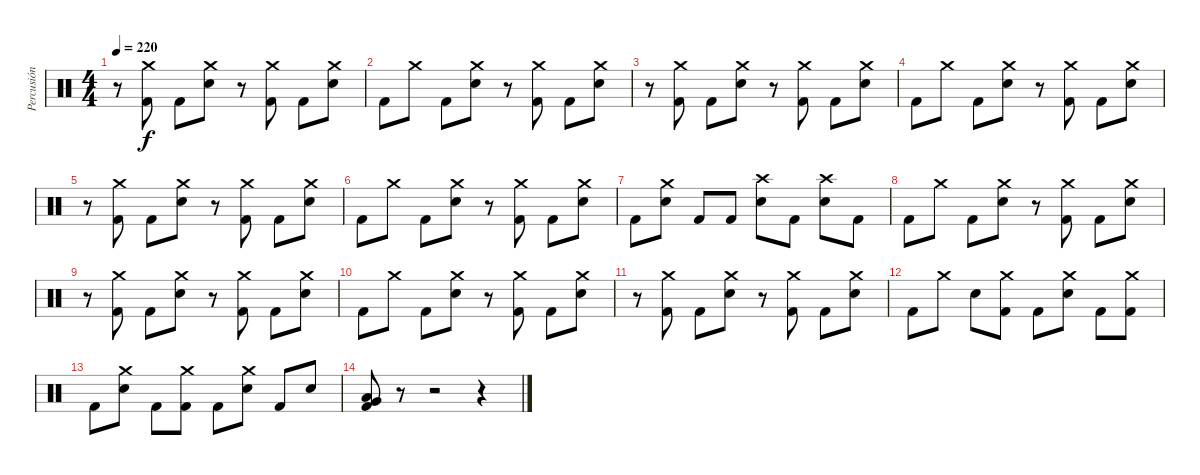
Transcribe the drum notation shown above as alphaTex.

\track ("Percusión" "Percusión") {instrument percussion}
\staff {score}
\articulation defaults
\ts (4 4)
\tempo 220
\clef neutral
\ks c
r.8{dy f} ("Crash medium (hit)" "Kick (hit) 2").8 "Kick (hit) 2".8 ("Crash medium (hit)" "Electric Snare (hit)").8 r.8 ("Crash medium (hit)" "Kick (hit) 2").8 "Kick (hit) 2".8 ("Crash medium (hit)" "Electric Snare (hit)").8 |
"Kick (hit) 2".8 "Crash medium (hit)".8 "Kick (hit) 2".8 ("Crash medium (hit)" "Electric Snare (hit)").8 r.8 ("Crash medium (hit)" "Kick (hit) 2").8 "Kick (hit) 2".8 ("Crash medium (hit)" "Electric Snare (hit)").8 |
r.8 ("Crash medium (hit)" "Kick (hit) 2").8 "Kick (hit) 2".8 ("Crash medium (hit)" "Electric Snare (hit)").8 r.8 ("Crash medium (hit)" "Kick (hit) 2").8 "Kick (hit) 2".8 ("Crash medium (hit)" "Electric Snare (hit)").8 |
"Kick (hit) 2".8 "Crash medium (hit)".8 "Kick (hit) 2".8 ("Crash medium (hit)" "Electric Snare (hit)").8 r.8 ("Crash medium (hit)" "Kick (hit) 2").8 "Kick (hit) 2".8 ("Crash medium (hit)" "Electric Snare (hit)").8 |
r.8 ("Crash medium (hit)" "Kick (hit) 2").8 "Kick (hit) 2".8 ("Crash medium (hit)" "Electric Snare (hit)").8 r.8 ("Crash medium (hit)" "Kick (hit) 2").8 "Kick (hit) 2".8 ("Crash medium (hit)" "Electric Snare (hit)").8 |
"Kick (hit) 2".8 "Crash medium (hit)".8 "Kick (hit) 2".8 ("Crash medium (hit)" "Electric Snare (hit)").8 r.8 ("Crash medium (hit)" "Kick (hit) 2").8 "Kick (hit) 2".8 ("Crash medium (hit)" "Electric Snare (hit)").8 |
"Kick (hit) 2".8 ("Crash medium (hit)" "Electric Snare (hit)").8 "Kick (hit) 2".8 "Kick (hit) 2".8 ("Crash high (hit)" "Electric Snare (hit)").8 "Kick (hit) 2".8 ("Crash high (hit)" "Electric Snare (hit)").8 "Kick (hit) 2".8 |
"Kick (hit) 2".8 "Crash medium (hit)".8 "Kick (hit) 2".8 ("Crash medium (hit)" "Electric Snare (hit)").8 r.8 ("Crash medium (hit)" "Kick (hit) 2").8 "Kick (hit) 2".8 ("Crash medium (hit)" "Electric Snare (hit)").8 |
r.8 ("Crash medium (hit)" "Kick (hit) 2").8 "Kick (hit) 2".8 ("Crash medium (hit)" "Electric Snare (hit)").8 r.8 ("Crash medium (hit)" "Kick (hit) 2").8 "Kick (hit) 2".8 ("Crash medium (hit)" "Electric Snare (hit)").8 |
"Kick (hit) 2".8 "Crash medium (hit)".8 "Kick (hit) 2".8 ("Crash medium (hit)" "Electric Snare (hit)").8 r.8 ("Crash medium (hit)" "Kick (hit) 2").8 "Kick (hit) 2".8 ("Crash medium (hit)" "Electric Snare (hit)").8 |
r.8 ("Crash medium (hit)" "Kick (hit) 2").8 "Kick (hit) 2".8 ("Crash medium (hit)" "Electric Snare (hit)").8 r.8 ("Crash medium (hit)" "Kick (hit) 2").8 "Kick (hit) 2".8 ("Crash medium (hit)" "Electric Snare (hit)").8 |
"Kick (hit) 2".8 "Crash medium (hit)".8 "Electric Snare (hit)".8 ("Crash medium (hit)" "Kick (hit) 2").8 "Kick (hit) 2".8 ("Crash medium (hit)" "Electric Snare (hit)").8 "Kick (hit) 2".8 ("Crash medium (hit)" "Kick (hit) 2").8 |
"Kick (hit) 2".8 ("Crash medium (hit)" "Electric Snare (hit)").8 "Kick (hit) 2".8 ("Crash medium (hit)" "Kick (hit) 2").8 "Kick (hit) 2".8 ("Crash medium (hit)" "Electric Snare (hit)").8 "Kick (hit) 2".8 "Electric Snare (hit)".8 |
("Low Tom (hit)" "Very Low Tom (hit)" "Kick (hit) 2").8 r.8 r.2 r.4
